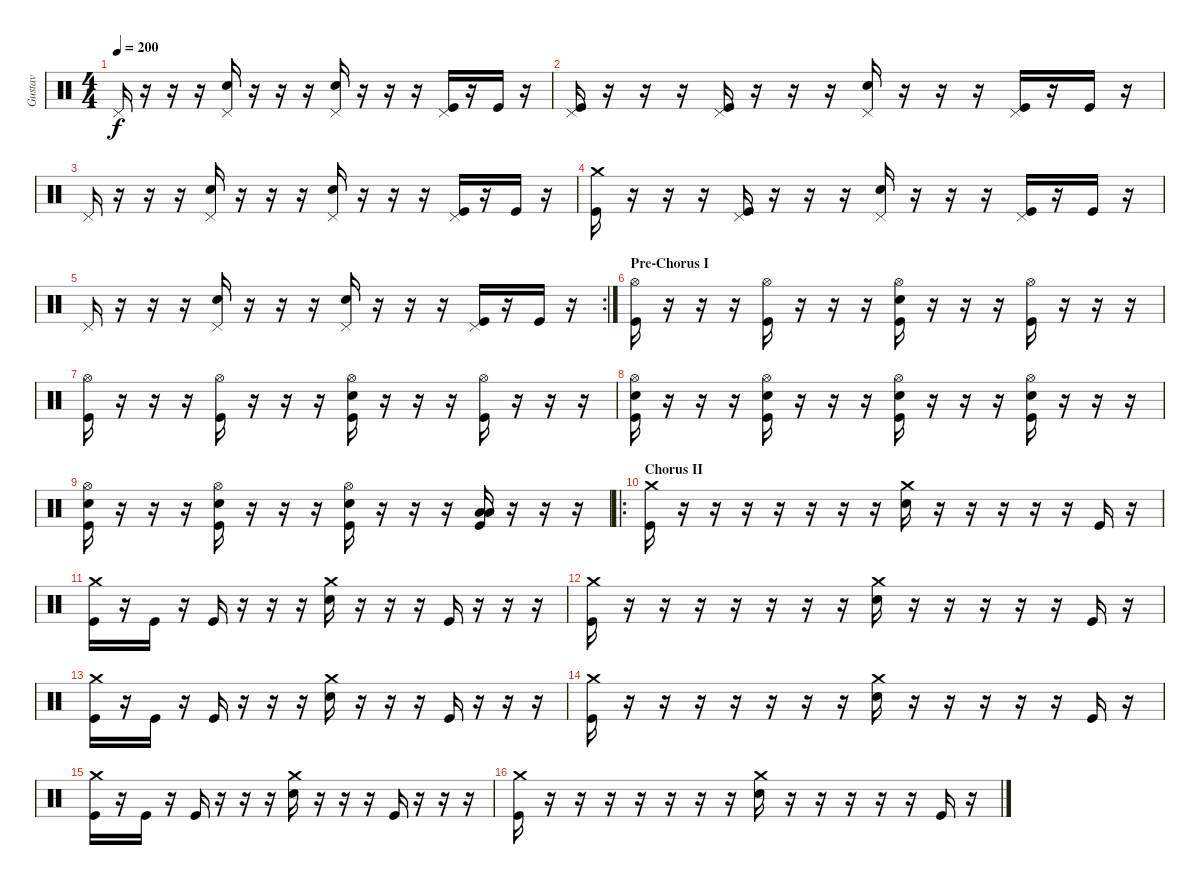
\track ("Gustav" "Gustav") {instrument percussion}
\staff {score}
\articulation defaults
\ts (4 4)
\tempo 200
\clef neutral
\ks c "Pedal Hi-Hat (hit)".16{dy f}
r.16 r.16 r.16 ("Pedal Hi-Hat (hit)" "Electric Snare (hit)").16 r.16 r.16 r.16 ("Pedal Hi-Hat (hit)" "Electric Snare (hit)").16 r.16 r.16 r.16 ("Pedal Hi-Hat (hit)" "Kick (hit)").16 r.16 "Kick (hit)".16 r.16 |
("Pedal Hi-Hat (hit)" "Kick (hit)").16 r.16 r.16 r.16 ("Pedal Hi-Hat (hit)" "Kick (hit)").16 r.16 r.16 r.16 ("Pedal Hi-Hat (hit)" "Electric Snare (hit)").16 r.16 r.16 r.16 ("Pedal Hi-Hat (hit)" "Kick (hit)").16 r.16 "Kick (hit)".16 r.16 |
"Pedal Hi-Hat (hit)".16 r.16 r.16 r.16 ("Pedal Hi-Hat (hit)" "Electric Snare (hit)").16 r.16 r.16 r.16 ("Pedal Hi-Hat (hit)" "Electric Snare (hit)").16 r.16 r.16 r.16 ("Pedal Hi-Hat (hit)" "Kick (hit)").16 r.16 "Kick (hit)".16 r.16 |
("Crash medium (hit)" "Kick (hit)").16 r.16 r.16 r.16 ("Pedal Hi-Hat (hit)" "Kick (hit)").16 r.16 r.16 r.16 ("Pedal Hi-Hat (hit)" "Electric Snare (hit)").16 r.16 r.16 r.16 ("Pedal Hi-Hat (hit)" "Kick (hit)").16 r.16 "Kick (hit)".16 r.16 |
\rc 2 "Pedal Hi-Hat (hit)".16
r.16 r.16 r.16 ("Pedal Hi-Hat (hit)" "Electric Snare (hit)").16 r.16 r.16 r.16 ("Pedal Hi-Hat (hit)" "Electric Snare (hit)").16 r.16 r.16 r.16 ("Pedal Hi-Hat (hit)" "Kick (hit)").16 r.16 "Kick (hit)".16 r.16 |
\section ("" "Pre-Chorus I")
("Hi-Hat (open)" "Kick (hit)").16 r.16 r.16 r.16 ("Hi-Hat (open)" "Kick (hit)").16 r.16 r.16 r.16 ("Hi-Hat (open)" "Electric Snare (hit)" "Kick (hit)").16 r.16 r.16 r.16 ("Hi-Hat (open)" "Kick (hit)").16 r.16 r.16 r.16 |
("Hi-Hat (open)" "Kick (hit)").16 r.16 r.16 r.16 ("Hi-Hat (open)" "Kick (hit)").16 r.16 r.16 r.16 ("Hi-Hat (open)" "Electric Snare (hit)" "Kick (hit)").16 r.16 r.16 r.16 ("Hi-Hat (open)" "Kick (hit)").16 r.16 r.16 r.16 |
("Hi-Hat (open)" "Electric Snare (hit)" "Kick (hit)").16 r.16 r.16 r.16 ("Hi-Hat (open)" "Electric Snare (hit)" "Kick (hit)").16 r.16 r.16 r.16 ("Hi-Hat (open)" "Electric Snare (hit)" "Kick (hit)").16 r.16 r.16 r.16 ("Hi-Hat (open)" "Electric Snare (hit)" "Kick (hit)").16 r.16 r.16 r.16 |
("Hi-Hat (open)" "Electric Snare (hit)" "Kick (hit)").16 r.16 r.16 r.16 ("Hi-Hat (open)" "Electric Snare (hit)" "Kick (hit)").16 r.16 r.16 r.16 ("Hi-Hat (open)" "Electric Snare (hit)" "Kick (hit)").16 r.16 r.16 r.16 ("Low Tom (hit)" "Low Tom (hit)" "Kick (hit)").16 r.16 r.16 r.16 |
\ro
\section ("" "Chorus II")
("Crash medium (hit)" "Kick (hit)").16 r.16 r.16 r.16 r.16 r.16 r.16 r.16 ("Crash medium (hit)" "Electric Snare (hit)").16 r.16 r.16 r.16 r.16 r.16 "Kick (hit)".16 r.16 |
("Crash medium (hit)" "Kick (hit)").16 r.16 "Kick (hit)".16 r.16 "Kick (hit)".16 r.16 r.16 r.16 ("Crash medium (hit)" "Electric Snare (hit)").16 r.16 r.16 r.16 "Kick (hit)".16 r.16 r.16 r.16 |
("Crash medium (hit)" "Kick (hit)").16 r.16 r.16 r.16 r.16 r.16 r.16 r.16 ("Crash medium (hit)" "Electric Snare (hit)").16 r.16 r.16 r.16 r.16 r.16 "Kick (hit)".16 r.16 |
("Crash medium (hit)" "Kick (hit)").16 r.16 "Kick (hit)".16 r.16 "Kick (hit)".16 r.16 r.16 r.16 ("Crash medium (hit)" "Electric Snare (hit)").16 r.16 r.16 r.16 "Kick (hit)".16 r.16 r.16 r.16 |
("Crash medium (hit)" "Kick (hit)").16 r.16 r.16 r.16 r.16 r.16 r.16 r.16 ("Crash medium (hit)" "Electric Snare (hit)").16 r.16 r.16 r.16 r.16 r.16 "Kick (hit)".16 r.16 |
("Crash medium (hit)" "Kick (hit)").16 r.16 "Kick (hit)".16 r.16 "Kick (hit)".16 r.16 r.16 r.16 ("Crash medium (hit)" "Electric Snare (hit)").16 r.16 r.16 r.16 "Kick (hit)".16 r.16 r.16 r.16 |
("Crash medium (hit)" "Kick (hit)").16 r.16 r.16 r.16 r.16 r.16 r.16 r.16 ("Crash medium (hit)" "Electric Snare (hit)").16 r.16 r.16 r.16 r.16 r.16 "Kick (hit)".16 r.16
